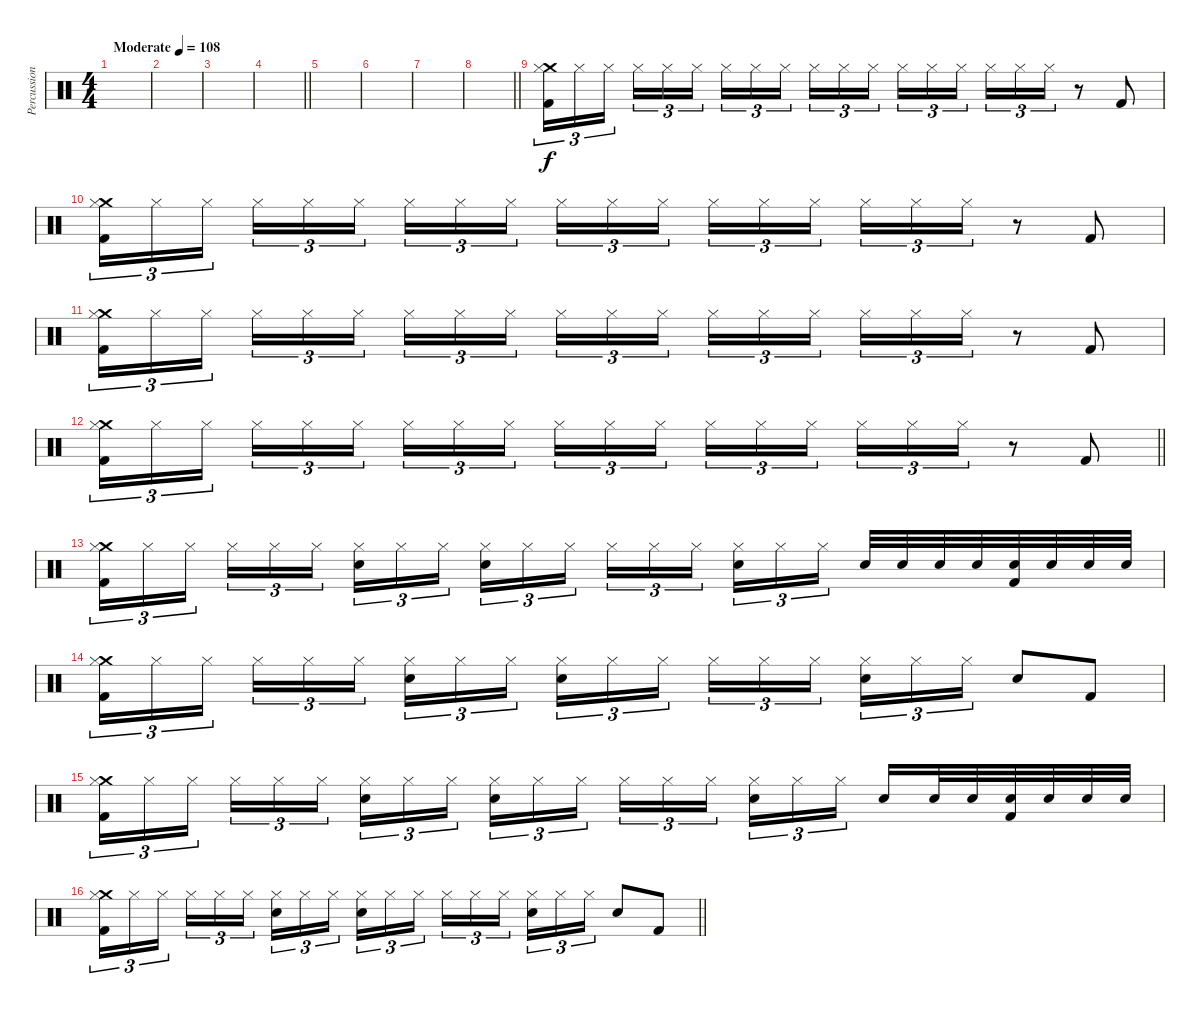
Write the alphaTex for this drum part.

\track ("Percussion" "Percussion") {instrument percussion}
\staff {score}
\articulation defaults
\ts (4 4)
\section ("" "")
\tempo (108 "Moderate")
\clef neutral
\ks c
|
|
|
\barLineRight lightlight
|
\section ("" "")
|
|
|
\barLineRight lightlight
|
("Crash medium (hit)" "Hi-Hat (closed)" "Kick (hit) 2").16{tu (3 2)} "Hi-Hat (closed)".16{tu (3 2)} "Hi-Hat (closed)".16{tu (3 2) beam splitsecondary} "Hi-Hat (closed)".16{tu (3 2)} "Hi-Hat (closed)".16{tu (3 2)} "Hi-Hat (closed)".16{tu (3 2)} "Hi-Hat (closed)".16{tu (3 2)} "Hi-Hat (closed)".16{tu (3 2)} "Hi-Hat (closed)".16{tu (3 2) beam splitsecondary} "Hi-Hat (closed)".16{tu (3 2)} "Hi-Hat (closed)".16{tu (3 2)} "Hi-Hat (closed)".16{tu (3 2)} "Hi-Hat (closed)".16{tu (3 2)} "Hi-Hat (closed)".16{tu (3 2)} "Hi-Hat (closed)".16{tu (3 2) beam splitsecondary} "Hi-Hat (closed)".16{tu (3 2)} "Hi-Hat (closed)".16{tu (3 2)} "Hi-Hat (closed)".16{tu (3 2)} r.8 "Kick (hit) 2".8 |
("Crash medium (hit)" "Hi-Hat (closed)" "Kick (hit) 2").16{tu (3 2)} "Hi-Hat (closed)".16{tu (3 2)} "Hi-Hat (closed)".16{tu (3 2) beam splitsecondary} "Hi-Hat (closed)".16{tu (3 2)} "Hi-Hat (closed)".16{tu (3 2)} "Hi-Hat (closed)".16{tu (3 2)} "Hi-Hat (closed)".16{tu (3 2)} "Hi-Hat (closed)".16{tu (3 2)} "Hi-Hat (closed)".16{tu (3 2) beam splitsecondary} "Hi-Hat (closed)".16{tu (3 2)} "Hi-Hat (closed)".16{tu (3 2)} "Hi-Hat (closed)".16{tu (3 2)} "Hi-Hat (closed)".16{tu (3 2)} "Hi-Hat (closed)".16{tu (3 2)} "Hi-Hat (closed)".16{tu (3 2) beam splitsecondary} "Hi-Hat (closed)".16{tu (3 2)} "Hi-Hat (closed)".16{tu (3 2)} "Hi-Hat (closed)".16{tu (3 2)} r.8 "Kick (hit) 2".8 |
("Crash medium (hit)" "Hi-Hat (closed)" "Kick (hit) 2").16{tu (3 2)} "Hi-Hat (closed)".16{tu (3 2)} "Hi-Hat (closed)".16{tu (3 2) beam splitsecondary} "Hi-Hat (closed)".16{tu (3 2)} "Hi-Hat (closed)".16{tu (3 2)} "Hi-Hat (closed)".16{tu (3 2)} "Hi-Hat (closed)".16{tu (3 2)} "Hi-Hat (closed)".16{tu (3 2)} "Hi-Hat (closed)".16{tu (3 2) beam splitsecondary} "Hi-Hat (closed)".16{tu (3 2)} "Hi-Hat (closed)".16{tu (3 2)} "Hi-Hat (closed)".16{tu (3 2)} "Hi-Hat (closed)".16{tu (3 2)} "Hi-Hat (closed)".16{tu (3 2)} "Hi-Hat (closed)".16{tu (3 2) beam splitsecondary} "Hi-Hat (closed)".16{tu (3 2)} "Hi-Hat (closed)".16{tu (3 2)} "Hi-Hat (closed)".16{tu (3 2)} r.8 "Kick (hit) 2".8 |
\barLineRight lightlight
("Crash medium (hit)" "Hi-Hat (closed)" "Kick (hit) 2").16{tu (3 2)} "Hi-Hat (closed)".16{tu (3 2)} "Hi-Hat (closed)".16{tu (3 2) beam splitsecondary} "Hi-Hat (closed)".16{tu (3 2)} "Hi-Hat (closed)".16{tu (3 2)} "Hi-Hat (closed)".16{tu (3 2)} "Hi-Hat (closed)".16{tu (3 2)} "Hi-Hat (closed)".16{tu (3 2)} "Hi-Hat (closed)".16{tu (3 2) beam splitsecondary} "Hi-Hat (closed)".16{tu (3 2)} "Hi-Hat (closed)".16{tu (3 2)} "Hi-Hat (closed)".16{tu (3 2)} "Hi-Hat (closed)".16{tu (3 2)} "Hi-Hat (closed)".16{tu (3 2)} "Hi-Hat (closed)".16{tu (3 2) beam splitsecondary} "Hi-Hat (closed)".16{tu (3 2)} "Hi-Hat (closed)".16{tu (3 2)} "Hi-Hat (closed)".16{tu (3 2)} r.8 "Kick (hit) 2".8 |
\section ("" "")
("Crash medium (hit)" "Hi-Hat (closed)" "Kick (hit) 2").16{tu (3 2)} "Hi-Hat (closed)".16{tu (3 2)} "Hi-Hat (closed)".16{tu (3 2) beam splitsecondary} "Hi-Hat (closed)".16{tu (3 2)} "Hi-Hat (closed)".16{tu (3 2)} "Hi-Hat (closed)".16{tu (3 2)} ("Hi-Hat (closed)" "Electric Snare (hit)").16{tu (3 2)} "Hi-Hat (closed)".16{tu (3 2)} "Hi-Hat (closed)".16{tu (3 2) beam splitsecondary} ("Hi-Hat (closed)" "Electric Snare (hit)").16{tu (3 2)} "Hi-Hat (closed)".16{tu (3 2)} "Hi-Hat (closed)".16{tu (3 2)} "Hi-Hat (closed)".16{tu (3 2)} "Hi-Hat (closed)".16{tu (3 2)} "Hi-Hat (closed)".16{tu (3 2) beam splitsecondary} ("Hi-Hat (closed)" "Electric Snare (hit)").16{tu (3 2)} "Hi-Hat (closed)".16{tu (3 2)} "Hi-Hat (closed)".16{tu (3 2)} "Electric Snare (hit)".32 "Electric Snare (hit)".32 "Electric Snare (hit)".32 "Electric Snare (hit)".32 ("Electric Snare (hit)" "Kick (hit) 2").32 "Electric Snare (hit)".32 "Electric Snare (hit)".32 "Electric Snare (hit)".32 |
("Crash medium (hit)" "Hi-Hat (closed)" "Kick (hit) 2").16{tu (3 2)} "Hi-Hat (closed)".16{tu (3 2)} "Hi-Hat (closed)".16{tu (3 2) beam splitsecondary} "Hi-Hat (closed)".16{tu (3 2)} "Hi-Hat (closed)".16{tu (3 2)} "Hi-Hat (closed)".16{tu (3 2)} ("Hi-Hat (closed)" "Electric Snare (hit)").16{tu (3 2)} "Hi-Hat (closed)".16{tu (3 2)} "Hi-Hat (closed)".16{tu (3 2) beam splitsecondary} ("Hi-Hat (closed)" "Electric Snare (hit)").16{tu (3 2)} "Hi-Hat (closed)".16{tu (3 2)} "Hi-Hat (closed)".16{tu (3 2)} "Hi-Hat (closed)".16{tu (3 2)} "Hi-Hat (closed)".16{tu (3 2)} "Hi-Hat (closed)".16{tu (3 2) beam splitsecondary} ("Hi-Hat (closed)" "Electric Snare (hit)").16{tu (3 2)} "Hi-Hat (closed)".16{tu (3 2)} "Hi-Hat (closed)".16{tu (3 2)} "Electric Snare (hit)".8 "Kick (hit) 2".8 |
("Crash medium (hit)" "Hi-Hat (closed)" "Kick (hit) 2").16{tu (3 2)} "Hi-Hat (closed)".16{tu (3 2)} "Hi-Hat (closed)".16{tu (3 2) beam splitsecondary} "Hi-Hat (closed)".16{tu (3 2)} "Hi-Hat (closed)".16{tu (3 2)} "Hi-Hat (closed)".16{tu (3 2)} ("Hi-Hat (closed)" "Electric Snare (hit)").16{tu (3 2)} "Hi-Hat (closed)".16{tu (3 2)} "Hi-Hat (closed)".16{tu (3 2) beam splitsecondary} ("Hi-Hat (closed)" "Electric Snare (hit)").16{tu (3 2)} "Hi-Hat (closed)".16{tu (3 2)} "Hi-Hat (closed)".16{tu (3 2)} "Hi-Hat (closed)".16{tu (3 2)} "Hi-Hat (closed)".16{tu (3 2)} "Hi-Hat (closed)".16{tu (3 2) beam splitsecondary} ("Hi-Hat (closed)" "Electric Snare (hit)").16{tu (3 2)} "Hi-Hat (closed)".16{tu (3 2)} "Hi-Hat (closed)".16{tu (3 2)} "Electric Snare (hit)".16 "Electric Snare (hit)".32 "Electric Snare (hit)".32 ("Electric Snare (hit)" "Kick (hit) 2").32 "Electric Snare (hit)".32 "Electric Snare (hit)".32 "Electric Snare (hit)".32 |
\barLineRight lightlight
("Crash medium (hit)" "Hi-Hat (closed)" "Kick (hit) 2").16{tu (3 2)} "Hi-Hat (closed)".16{tu (3 2)} "Hi-Hat (closed)".16{tu (3 2) beam splitsecondary} "Hi-Hat (closed)".16{tu (3 2)} "Hi-Hat (closed)".16{tu (3 2)} "Hi-Hat (closed)".16{tu (3 2)} ("Hi-Hat (closed)" "Electric Snare (hit)").16{tu (3 2)} "Hi-Hat (closed)".16{tu (3 2)} "Hi-Hat (closed)".16{tu (3 2) beam splitsecondary} ("Hi-Hat (closed)" "Electric Snare (hit)").16{tu (3 2)} "Hi-Hat (closed)".16{tu (3 2)} "Hi-Hat (closed)".16{tu (3 2)} "Hi-Hat (closed)".16{tu (3 2)} "Hi-Hat (closed)".16{tu (3 2)} "Hi-Hat (closed)".16{tu (3 2) beam splitsecondary} ("Hi-Hat (closed)" "Electric Snare (hit)").16{tu (3 2)} "Hi-Hat (closed)".16{tu (3 2)} "Hi-Hat (closed)".16{tu (3 2)} "Electric Snare (hit)".8 "Kick (hit) 2".8
